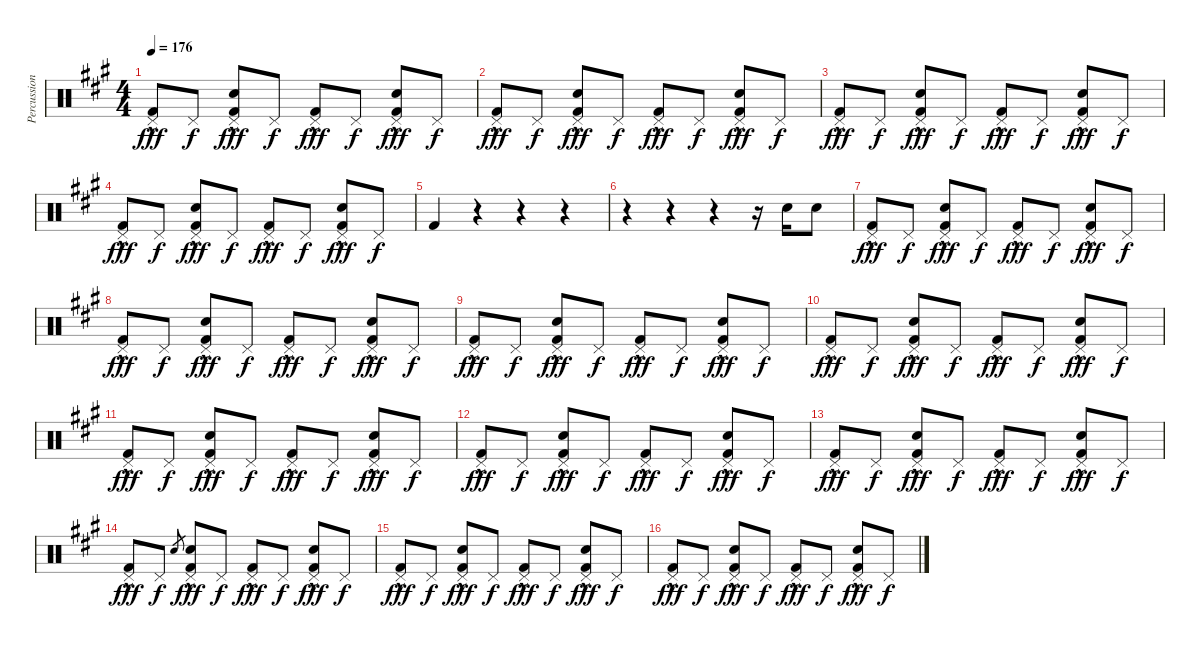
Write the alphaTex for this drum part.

\track ("Percussion" "Percussion") {instrument percussion}
\staff {score}
\articulation defaults
\ts (4 4)
\tempo 176
\clef neutral
\ks a
("Pedal Hi-Hat (hit)"{hac} "Kick (hit) 2").8{dy fff} "Pedal Hi-Hat (hit)".8{dy f} ("Pedal Hi-Hat (hit)"{hac} "Snare (hit) 2" "Kick (hit) 2").8{dy fff} "Pedal Hi-Hat (hit)".8{dy f} ("Pedal Hi-Hat (hit)"{hac} "Kick (hit) 2").8{dy fff} "Pedal Hi-Hat (hit)".8{dy f} ("Pedal Hi-Hat (hit)"{hac} "Snare (hit) 2" "Kick (hit) 2").8{dy fff} "Pedal Hi-Hat (hit)".8{dy f} |
("Pedal Hi-Hat (hit)"{hac} "Kick (hit) 2").8{dy fff} "Pedal Hi-Hat (hit)".8{dy f} ("Pedal Hi-Hat (hit)"{hac} "Snare (hit) 2" "Kick (hit) 2").8{dy fff} "Pedal Hi-Hat (hit)".8{dy f} ("Pedal Hi-Hat (hit)"{hac} "Kick (hit) 2").8{dy fff} "Pedal Hi-Hat (hit)".8{dy f} ("Pedal Hi-Hat (hit)"{hac} "Snare (hit) 2" "Kick (hit) 2").8{dy fff} "Pedal Hi-Hat (hit)".8{dy f} |
("Pedal Hi-Hat (hit)"{hac} "Kick (hit) 2").8{dy fff} "Pedal Hi-Hat (hit)".8{dy f} ("Pedal Hi-Hat (hit)"{hac} "Snare (hit) 2" "Kick (hit) 2").8{dy fff} "Pedal Hi-Hat (hit)".8{dy f} ("Pedal Hi-Hat (hit)"{hac} "Kick (hit) 2").8{dy fff} "Pedal Hi-Hat (hit)".8{dy f} ("Pedal Hi-Hat (hit)"{hac} "Snare (hit) 2" "Kick (hit) 2").8{dy fff} "Pedal Hi-Hat (hit)".8{dy f} |
("Pedal Hi-Hat (hit)"{hac} "Kick (hit) 2").8{dy fff} "Pedal Hi-Hat (hit)".8{dy f} ("Pedal Hi-Hat (hit)"{hac} "Snare (hit) 2" "Kick (hit) 2").8{dy fff} "Pedal Hi-Hat (hit)".8{dy f} ("Pedal Hi-Hat (hit)"{hac} "Kick (hit) 2").8{dy fff} "Pedal Hi-Hat (hit)".8{dy f} ("Pedal Hi-Hat (hit)"{hac} "Snare (hit) 2" "Kick (hit) 2").8{dy fff} "Pedal Hi-Hat (hit)".8{dy f} |
"Kick (hit) 2".4 r.4 r.4 r.4 |
r.4 r.4 r.4 r.16 "Snare (hit) 2".16 "Snare (hit) 2".8 |
("Pedal Hi-Hat (hit)"{hac} "Kick (hit) 2").8{dy fff} "Pedal Hi-Hat (hit)".8{dy f} ("Pedal Hi-Hat (hit)"{hac} "Snare (hit) 2" "Kick (hit) 2").8{dy fff} "Pedal Hi-Hat (hit)".8{dy f} ("Pedal Hi-Hat (hit)"{hac} "Kick (hit) 2").8{dy fff} "Pedal Hi-Hat (hit)".8{dy f} ("Pedal Hi-Hat (hit)"{hac} "Snare (hit) 2" "Kick (hit) 2").8{dy fff} "Pedal Hi-Hat (hit)".8{dy f} |
("Pedal Hi-Hat (hit)"{hac} "Kick (hit) 2").8{dy fff} "Pedal Hi-Hat (hit)".8{dy f} ("Pedal Hi-Hat (hit)"{hac} "Snare (hit) 2" "Kick (hit) 2").8{dy fff} "Pedal Hi-Hat (hit)".8{dy f} ("Pedal Hi-Hat (hit)"{hac} "Kick (hit) 2").8{dy fff} "Pedal Hi-Hat (hit)".8{dy f} ("Pedal Hi-Hat (hit)"{hac} "Snare (hit) 2" "Kick (hit) 2").8{dy fff} "Pedal Hi-Hat (hit)".8{dy f} |
("Pedal Hi-Hat (hit)"{hac} "Kick (hit) 2").8{dy fff} "Pedal Hi-Hat (hit)".8{dy f} ("Pedal Hi-Hat (hit)"{hac} "Snare (hit) 2" "Kick (hit) 2").8{dy fff} "Pedal Hi-Hat (hit)".8{dy f} ("Pedal Hi-Hat (hit)"{hac} "Kick (hit) 2").8{dy fff} "Pedal Hi-Hat (hit)".8{dy f} ("Pedal Hi-Hat (hit)"{hac} "Snare (hit) 2" "Kick (hit) 2").8{dy fff} "Pedal Hi-Hat (hit)".8{dy f} |
("Pedal Hi-Hat (hit)"{hac} "Kick (hit) 2").8{dy fff} "Pedal Hi-Hat (hit)".8{dy f} ("Pedal Hi-Hat (hit)"{hac} "Snare (hit) 2" "Kick (hit) 2").8{dy fff} "Pedal Hi-Hat (hit)".8{dy f} ("Pedal Hi-Hat (hit)"{hac} "Kick (hit) 2").8{dy fff} "Pedal Hi-Hat (hit)".8{dy f} ("Pedal Hi-Hat (hit)"{hac} "Snare (hit) 2" "Kick (hit) 2").8{dy fff} "Pedal Hi-Hat (hit)".8{dy f} |
("Pedal Hi-Hat (hit)"{hac} "Kick (hit) 2").8{dy fff} "Pedal Hi-Hat (hit)".8{dy f} ("Pedal Hi-Hat (hit)"{hac} "Snare (hit) 2" "Kick (hit) 2").8{dy fff} "Pedal Hi-Hat (hit)".8{dy f} ("Pedal Hi-Hat (hit)"{hac} "Kick (hit) 2").8{dy fff} "Pedal Hi-Hat (hit)".8{dy f} ("Pedal Hi-Hat (hit)"{hac} "Snare (hit) 2" "Kick (hit) 2").8{dy fff} "Pedal Hi-Hat (hit)".8{dy f} |
("Pedal Hi-Hat (hit)"{hac} "Kick (hit) 2").8{dy fff} "Pedal Hi-Hat (hit)".8{dy f} ("Pedal Hi-Hat (hit)"{hac} "Snare (hit) 2" "Kick (hit) 2").8{dy fff} "Pedal Hi-Hat (hit)".8{dy f} ("Pedal Hi-Hat (hit)"{hac} "Kick (hit) 2").8{dy fff} "Pedal Hi-Hat (hit)".8{dy f} ("Pedal Hi-Hat (hit)"{hac} "Snare (hit) 2" "Kick (hit) 2").8{dy fff} "Pedal Hi-Hat (hit)".8{dy f} |
("Pedal Hi-Hat (hit)"{hac} "Kick (hit) 2").8{dy fff} "Pedal Hi-Hat (hit)".8{dy f} ("Pedal Hi-Hat (hit)"{hac} "Snare (hit) 2" "Kick (hit) 2").8{dy fff} "Pedal Hi-Hat (hit)".8{dy f} ("Pedal Hi-Hat (hit)"{hac} "Kick (hit) 2").8{dy fff} "Pedal Hi-Hat (hit)".8{dy f} ("Pedal Hi-Hat (hit)"{hac} "Snare (hit) 2" "Kick (hit) 2").8{dy fff} "Pedal Hi-Hat (hit)".8{dy f} |
("Pedal Hi-Hat (hit)"{hac} "Kick (hit) 2").8{dy fff} "Pedal Hi-Hat (hit)".8{dy f} "Snare (hit) 2".8{gr} ("Pedal Hi-Hat (hit)"{hac} "Snare (hit) 2" "Kick (hit) 2").8{dy fff} "Pedal Hi-Hat (hit)".8{dy f} ("Pedal Hi-Hat (hit)"{hac} "Kick (hit) 2").8{dy fff} "Pedal Hi-Hat (hit)".8{dy f} ("Pedal Hi-Hat (hit)"{hac} "Snare (hit) 2" "Kick (hit) 2").8{dy fff} "Pedal Hi-Hat (hit)".8{dy f} |
("Pedal Hi-Hat (hit)"{hac} "Kick (hit) 2").8{dy fff} "Pedal Hi-Hat (hit)".8{dy f} ("Pedal Hi-Hat (hit)"{hac} "Snare (hit) 2" "Kick (hit) 2").8{dy fff} "Pedal Hi-Hat (hit)".8{dy f} ("Pedal Hi-Hat (hit)"{hac} "Kick (hit) 2").8{dy fff} "Pedal Hi-Hat (hit)".8{dy f} ("Pedal Hi-Hat (hit)"{hac} "Snare (hit) 2" "Kick (hit) 2").8{dy fff} "Pedal Hi-Hat (hit)".8{dy f} |
("Pedal Hi-Hat (hit)"{hac} "Kick (hit) 2").8{dy fff} "Pedal Hi-Hat (hit)".8{dy f} ("Pedal Hi-Hat (hit)"{hac} "Snare (hit) 2" "Kick (hit) 2").8{dy fff} "Pedal Hi-Hat (hit)".8{dy f} ("Pedal Hi-Hat (hit)"{hac} "Kick (hit) 2").8{dy fff} "Pedal Hi-Hat (hit)".8{dy f} ("Pedal Hi-Hat (hit)"{hac} "Snare (hit) 2" "Kick (hit) 2").8{dy fff} "Pedal Hi-Hat (hit)".8{dy f}
